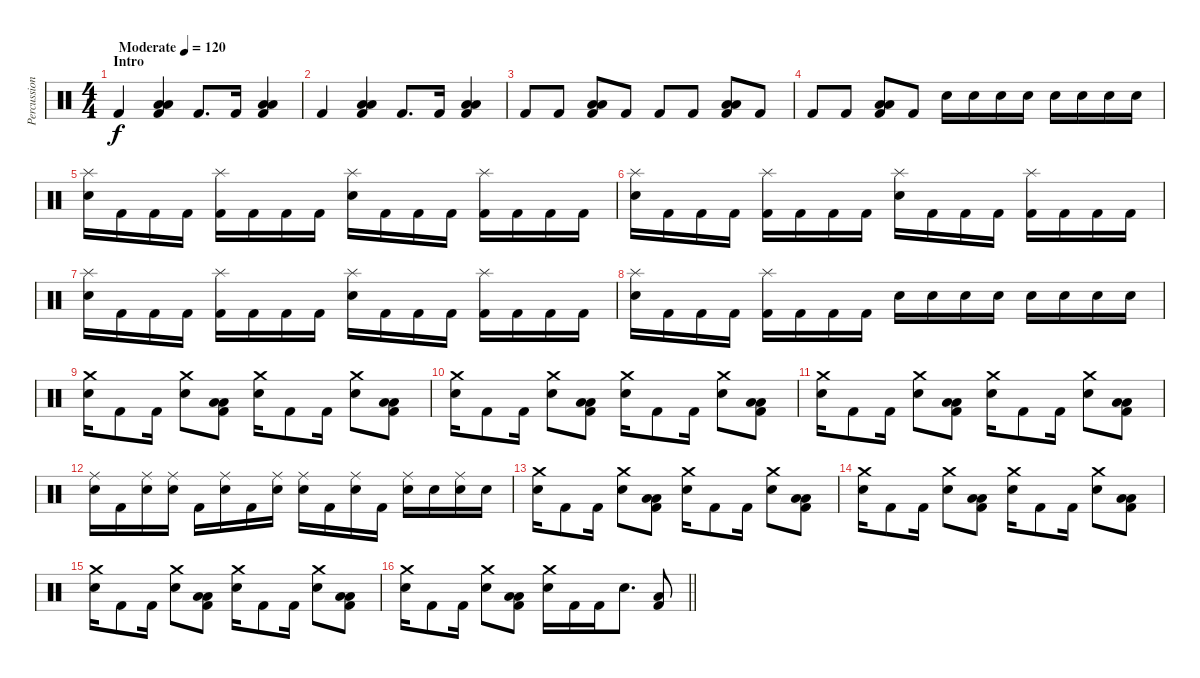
\track ("Percussion" "Percussion") {instrument percussion}
\staff {score}
\articulation defaults
\ts (4 4)
\section ("" "Intro")
\tempo (120 "Moderate")
\clef neutral
\ks c "Kick (hit) 2".4{dy f}
("Low Floor Tom (hit)" "Low Tom (hit)" "Kick (hit) 2").4 "Kick (hit) 2".8{d} "Kick (hit) 2".16 ("Low Floor Tom (hit)" "Low Tom (hit)" "Kick (hit) 2").4 |
"Kick (hit) 2".4 ("Low Floor Tom (hit)" "Low Tom (hit)" "Kick (hit) 2").4 "Kick (hit) 2".8{d} "Kick (hit) 2".16 ("Low Floor Tom (hit)" "Low Tom (hit)" "Kick (hit) 2").4 |
"Kick (hit) 2".8 "Kick (hit) 2".8 ("Low Floor Tom (hit)" "Low Tom (hit)" "Kick (hit) 2").8 "Kick (hit) 2".8 "Kick (hit) 2".8 "Kick (hit) 2".8 ("Low Floor Tom (hit)" "Low Tom (hit)" "Kick (hit) 2").8 "Kick (hit) 2".8 |
"Kick (hit) 2".8 "Kick (hit) 2".8 ("Low Floor Tom (hit)" "Low Tom (hit)" "Kick (hit) 2").8 "Kick (hit) 2".8 "Electric Snare (hit)".16 "Electric Snare (hit)".16 "Electric Snare (hit)".16 "Electric Snare (hit)".16 "Electric Snare (hit)".16 "Electric Snare (hit)".16 "Electric Snare (hit)".16 "Electric Snare (hit)".16 |
("Splash (hit)" "Electric Snare (hit)").16 "Kick (hit) 2".16 "Kick (hit) 2".16 "Kick (hit) 2".16 ("Splash (hit)" "Kick (hit) 2").16 "Kick (hit) 2".16 "Kick (hit) 2".16 "Kick (hit) 2".16 ("Splash (hit)" "Electric Snare (hit)").16 "Kick (hit) 2".16 "Kick (hit) 2".16 "Kick (hit) 2".16 ("Splash (hit)" "Kick (hit) 2").16 "Kick (hit) 2".16 "Kick (hit) 2".16 "Kick (hit) 2".16 |
("Splash (hit)" "Electric Snare (hit)").16 "Kick (hit) 2".16 "Kick (hit) 2".16 "Kick (hit) 2".16 ("Splash (hit)" "Kick (hit) 2").16 "Kick (hit) 2".16 "Kick (hit) 2".16 "Kick (hit) 2".16 ("Splash (hit)" "Electric Snare (hit)").16 "Kick (hit) 2".16 "Kick (hit) 2".16 "Kick (hit) 2".16 ("Splash (hit)" "Kick (hit) 2").16 "Kick (hit) 2".16 "Kick (hit) 2".16 "Kick (hit) 2".16 |
("Splash (hit)" "Electric Snare (hit)").16 "Kick (hit) 2".16 "Kick (hit) 2".16 "Kick (hit) 2".16 ("Splash (hit)" "Kick (hit) 2").16 "Kick (hit) 2".16 "Kick (hit) 2".16 "Kick (hit) 2".16 ("Splash (hit)" "Electric Snare (hit)").16 "Kick (hit) 2".16 "Kick (hit) 2".16 "Kick (hit) 2".16 ("Splash (hit)" "Kick (hit) 2").16 "Kick (hit) 2".16 "Kick (hit) 2".16 "Kick (hit) 2".16 |
("Splash (hit)" "Electric Snare (hit)").16 "Kick (hit) 2".16 "Kick (hit) 2".16 "Kick (hit) 2".16 ("Splash (hit)" "Kick (hit) 2").16 "Kick (hit) 2".16 "Kick (hit) 2".16 "Kick (hit) 2".16 "Electric Snare (hit)".16 "Electric Snare (hit)".16 "Electric Snare (hit)".16 "Electric Snare (hit)".16 "Electric Snare (hit)".16 "Electric Snare (hit)".16 "Electric Snare (hit)".16 "Electric Snare (hit)".16 |
("Crash medium (hit)" "Electric Snare (hit)").16 "Kick (hit) 2".8 "Kick (hit) 2".16 ("Crash medium (hit)" "Electric Snare (hit)").8 ("Low Floor Tom (hit)" "Low Tom (hit)" "Kick (hit) 2").8 ("Crash medium (hit)" "Electric Snare (hit)").16 "Kick (hit) 2".8 "Kick (hit) 2".16 ("Crash medium (hit)" "Electric Snare (hit)").8 ("Low Floor Tom (hit)" "Low Tom (hit)" "Kick (hit) 2").8 |
("Crash medium (hit)" "Electric Snare (hit)").16 "Kick (hit) 2".8 "Kick (hit) 2".16 ("Crash medium (hit)" "Electric Snare (hit)").8 ("Low Floor Tom (hit)" "Low Tom (hit)" "Kick (hit) 2").8 ("Crash medium (hit)" "Electric Snare (hit)").16 "Kick (hit) 2".8 "Kick (hit) 2".16 ("Crash medium (hit)" "Electric Snare (hit)").8 ("Low Floor Tom (hit)" "Low Tom (hit)" "Kick (hit) 2").8 |
("Crash medium (hit)" "Electric Snare (hit)").16 "Kick (hit) 2".8 "Kick (hit) 2".16 ("Crash medium (hit)" "Electric Snare (hit)").8 ("Low Floor Tom (hit)" "Low Tom (hit)" "Kick (hit) 2").8 ("Crash medium (hit)" "Electric Snare (hit)").16 "Kick (hit) 2".8 "Kick (hit) 2".16 ("Crash medium (hit)" "Electric Snare (hit)").8 ("Low Floor Tom (hit)" "Low Tom (hit)" "Kick (hit) 2").8 |
("Ride (middle)" "Electric Snare (hit)").16 "Kick (hit) 2".16 ("Ride (middle)" "Electric Snare (hit)").16 ("Ride (middle)" "Electric Snare (hit)").16 "Kick (hit) 2".16 ("Ride (middle)" "Electric Snare (hit)").16 "Kick (hit) 2".16 ("Ride (middle)" "Electric Snare (hit)").16 ("Ride (middle)" "Electric Snare (hit)").16 "Kick (hit) 2".16 ("Ride (middle)" "Electric Snare (hit)").16 "Kick (hit) 2".16 ("Ride (middle)" "Electric Snare (hit)").16 "Electric Snare (hit)".16 ("Ride (middle)" "Electric Snare (hit)").16 "Electric Snare (hit)".16 |
("Crash medium (hit)" "Electric Snare (hit)").16 "Kick (hit) 2".8 "Kick (hit) 2".16 ("Crash medium (hit)" "Electric Snare (hit)").8 ("Low Floor Tom (hit)" "Low Tom (hit)" "Kick (hit) 2").8 ("Crash medium (hit)" "Electric Snare (hit)").16 "Kick (hit) 2".8 "Kick (hit) 2".16 ("Crash medium (hit)" "Electric Snare (hit)").8 ("Low Floor Tom (hit)" "Low Tom (hit)" "Kick (hit) 2").8 |
("Crash medium (hit)" "Electric Snare (hit)").16 "Kick (hit) 2".8 "Kick (hit) 2".16 ("Crash medium (hit)" "Electric Snare (hit)").8 ("Low Floor Tom (hit)" "Low Tom (hit)" "Kick (hit) 2").8 ("Crash medium (hit)" "Electric Snare (hit)").16 "Kick (hit) 2".8 "Kick (hit) 2".16 ("Crash medium (hit)" "Electric Snare (hit)").8 ("Low Floor Tom (hit)" "Low Tom (hit)" "Kick (hit) 2").8 |
("Crash medium (hit)" "Electric Snare (hit)").16 "Kick (hit) 2".8 "Kick (hit) 2".16 ("Crash medium (hit)" "Electric Snare (hit)").8 ("Low Floor Tom (hit)" "Low Tom (hit)" "Kick (hit) 2").8 ("Crash medium (hit)" "Electric Snare (hit)").16 "Kick (hit) 2".8 "Kick (hit) 2".16 ("Crash medium (hit)" "Electric Snare (hit)").8 ("Low Floor Tom (hit)" "Low Tom (hit)" "Kick (hit) 2").8 |
\barLineRight lightlight
("Crash medium (hit)" "Electric Snare (hit)").16 "Kick (hit) 2".8 "Kick (hit) 2".16 ("Crash medium (hit)" "Electric Snare (hit)").8 ("Low Floor Tom (hit)" "Low Tom (hit)" "Kick (hit) 2").8 ("Crash medium (hit)" "Electric Snare (hit)").16 "Kick (hit) 2".16 "Kick (hit) 2".16 "Electric Snare (hit)".8{d} ("Low Floor Tom (hit)" "Kick (hit) 2").8
